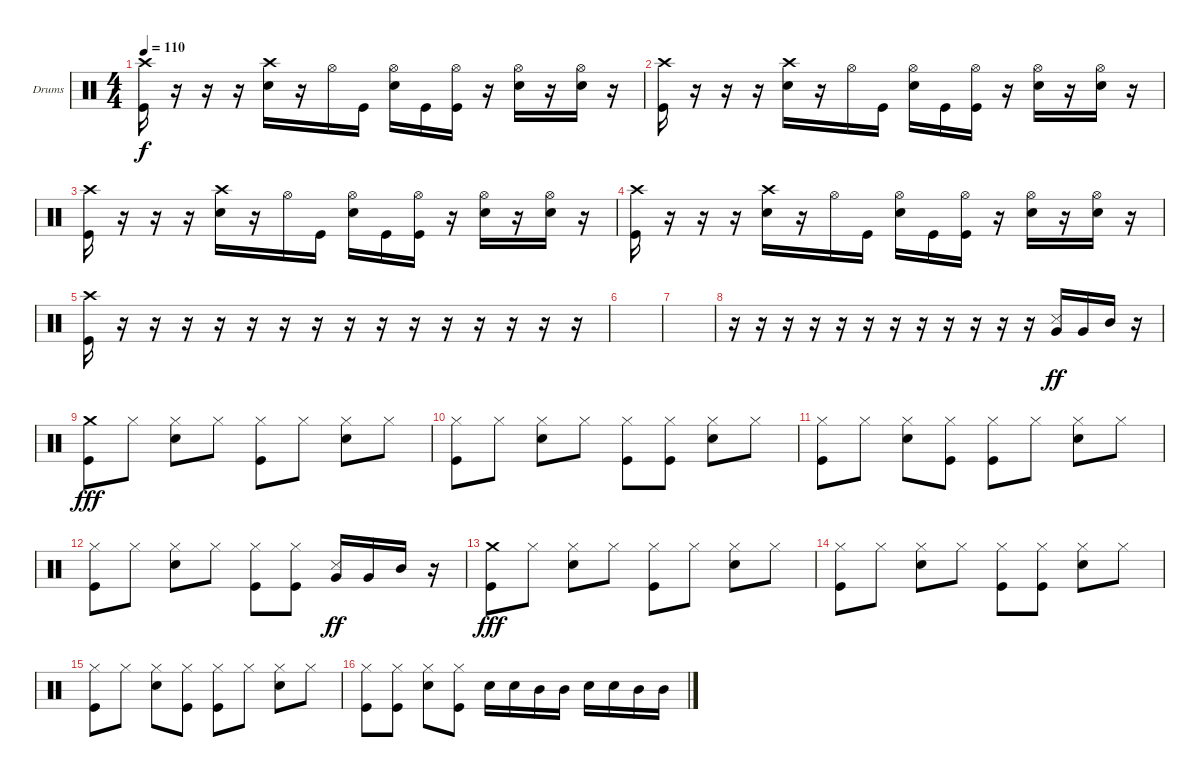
\defaultSystemsLayout 4
\bracketExtendMode groupsimilarinstruments
\firstSystemTrackNameOrientation horizontal
\otherSystemsTrackNameOrientation horizontal
\track ("Drumkit" "Drums") {instrument percussion}
\staff {score}
\articulation defaults
\ts (4 4)
\tempo 110
\clef neutral
\scale
0.333333
\ks c
("Crash high (hit)" "Kick (hit)").16{dy f} r.16 r.16 r.16 ("Crash high (hit)" "Snare (hit) 2").16 r.16 "Hi-Hat (open)".16 "Kick (hit)".16 ("Hi-Hat (open)" "Snare (hit) 2").16 "Kick (hit)".16 ("Hi-Hat (open)" "Kick (hit)").16 r.16 ("Hi-Hat (open)" "Snare (hit) 2").16 r.16 ("Hi-Hat (open)" "Snare (hit) 2").16 r.16 |
\scale
0.333333 ("Crash high (hit)" "Kick (hit)").16 r.16 r.16 r.16 ("Crash high (hit)" "Snare (hit) 2").16 r.16 "Hi-Hat (open)".16 "Kick (hit)".16 ("Hi-Hat (open)" "Snare (hit) 2").16 "Kick (hit)".16 ("Hi-Hat (open)" "Kick (hit)").16 r.16 ("Hi-Hat (open)" "Snare (hit) 2").16 r.16 ("Hi-Hat (open)" "Snare (hit) 2").16 r.16 |
\scale
0.333333 ("Crash high (hit)" "Kick (hit)").16 r.16 r.16 r.16 ("Crash high (hit)" "Snare (hit) 2").16 r.16 "Hi-Hat (open)".16 "Kick (hit)".16 ("Hi-Hat (open)" "Snare (hit) 2").16 "Kick (hit)".16 ("Hi-Hat (open)" "Kick (hit)").16 r.16 ("Hi-Hat (open)" "Snare (hit) 2").16 r.16 ("Hi-Hat (open)" "Snare (hit) 2").16 r.16 |
\scale
0.333333 ("Crash high (hit)" "Kick (hit)").16 r.16 r.16 r.16 ("Crash high (hit)" "Snare (hit) 2").16 r.16 "Hi-Hat (open)".16 "Kick (hit)".16 ("Hi-Hat (open)" "Snare (hit) 2").16 "Kick (hit)".16 ("Hi-Hat (open)" "Kick (hit)").16 r.16 ("Hi-Hat (open)" "Snare (hit) 2").16 r.16 ("Hi-Hat (open)" "Snare (hit) 2").16 r.16 |
\scale
0.333333 ("Crash high (hit)" "Kick (hit)").16 r.16 r.16 r.16 r.16 r.16 r.16 r.16 r.16 r.16 r.16 r.16 r.16 r.16 r.16 r.16 |
|
|
r.16 r.16 r.16 r.16 r.16 r.16 r.16 r.16 r.16 r.16 r.16 r.16 ("Very Low Tom (hit)" "Snare (side stick) 3").16{dy ff} "Very Low Tom (hit)".16 "Mid Tom (hit)".16 r.16 |
("Crash medium (hit)" "Kick (hit)").8{dy fff} "Hi-Hat (closed)".8 ("Hi-Hat (closed)" "Snare (hit) 2").8 "Hi-Hat (closed)".8 ("Hi-Hat (closed)" "Kick (hit)").8 "Hi-Hat (closed)".8 ("Hi-Hat (closed)" "Snare (hit) 2").8 "Hi-Hat (closed)".8 |
("Kick (hit)" "Hi-Hat (closed)").8 "Hi-Hat (closed)".8 ("Hi-Hat (closed)" "Snare (hit) 2").8 "Hi-Hat (closed)".8 ("Hi-Hat (closed)" "Kick (hit)").8 ("Hi-Hat (closed)" "Kick (hit)").8 ("Hi-Hat (closed)" "Snare (hit) 2").8 "Hi-Hat (closed)".8 |
("Kick (hit)" "Hi-Hat (closed)").8 "Hi-Hat (closed)".8 ("Hi-Hat (closed)" "Snare (hit) 2").8 ("Hi-Hat (closed)" "Kick (hit)").8 ("Hi-Hat (closed)" "Kick (hit)").8 "Hi-Hat (closed)".8 ("Hi-Hat (closed)" "Snare (hit) 2").8 "Hi-Hat (closed)".8 |
("Kick (hit)" "Hi-Hat (closed)").8 "Hi-Hat (closed)".8 ("Hi-Hat (closed)" "Snare (hit) 2").8 "Hi-Hat (closed)".8 ("Hi-Hat (closed)" "Kick (hit)").8 ("Hi-Hat (closed)" "Kick (hit)").8 ("Very Low Tom (hit)" "Snare (side stick) 3").16{dy ff} "Very Low Tom (hit)".16 "Mid Tom (hit)".16 r.16 |
("Crash medium (hit)" "Kick (hit)").8{dy fff} "Hi-Hat (closed)".8 ("Hi-Hat (closed)" "Snare (hit) 2").8 "Hi-Hat (closed)".8 ("Hi-Hat (closed)" "Kick (hit)").8 "Hi-Hat (closed)".8 ("Hi-Hat (closed)" "Snare (hit) 2").8 "Hi-Hat (closed)".8 |
("Kick (hit)" "Hi-Hat (closed)").8 "Hi-Hat (closed)".8 ("Hi-Hat (closed)" "Snare (hit) 2").8 "Hi-Hat (closed)".8 ("Hi-Hat (closed)" "Kick (hit)").8 ("Hi-Hat (closed)" "Kick (hit)").8 ("Hi-Hat (closed)" "Snare (hit) 2").8 "Hi-Hat (closed)".8 |
("Kick (hit)" "Hi-Hat (closed)").8 "Hi-Hat (closed)".8 ("Hi-Hat (closed)" "Snare (hit) 2").8 ("Hi-Hat (closed)" "Kick (hit)").8 ("Hi-Hat (closed)" "Kick (hit)").8 "Hi-Hat (closed)".8 ("Hi-Hat (closed)" "Snare (hit) 2").8 "Hi-Hat (closed)".8 |
("Kick (hit)" "Hi-Hat (closed)").8 ("Hi-Hat (closed)" "Kick (hit)").8 ("Hi-Hat (closed)" "Snare (hit) 2").8 ("Hi-Hat (closed)" "Kick (hit)").8 "Snare (hit) 2".16 "Snare (hit) 2".16 "Mid Tom (hit)".16 "Mid Tom (hit)".16 "Snare (hit) 2".16 "Snare (hit) 2".16 "Mid Tom (hit)".16 "Mid Tom (hit)".16
